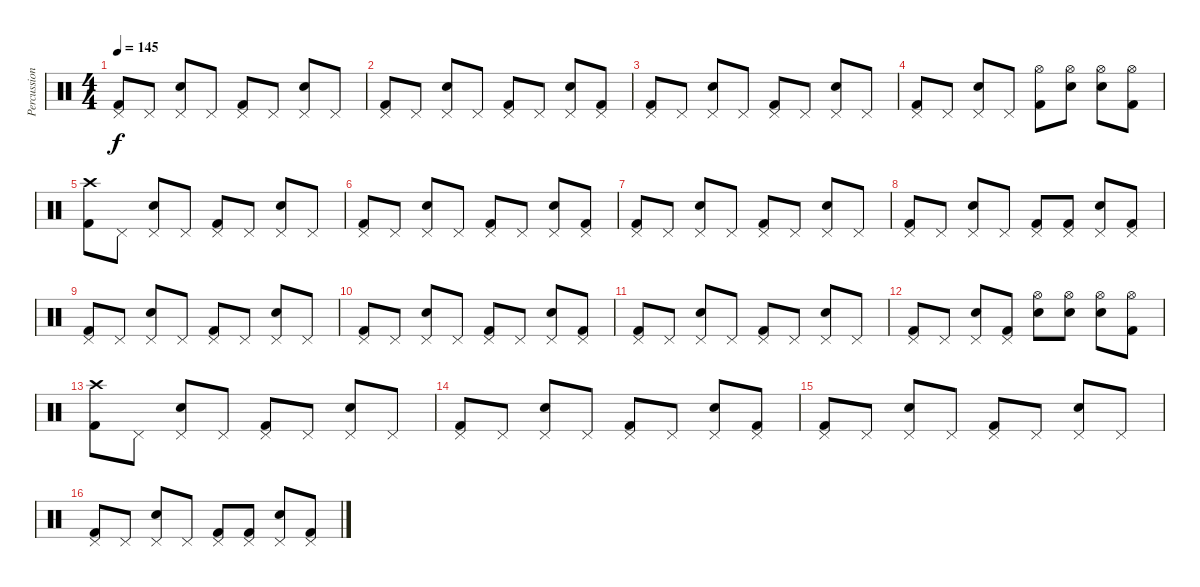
\track ("Percussion" "Percussion") {instrument percussion}
\staff {score}
\articulation defaults
\ts (4 4)
\tempo 145
\clef neutral
\ks c
("Pedal Hi-Hat (hit)" "Kick (hit) 2").8{dy f} "Pedal Hi-Hat (hit)".8 ("Pedal Hi-Hat (hit)" "Electric Snare (hit)").8 "Pedal Hi-Hat (hit)".8 ("Pedal Hi-Hat (hit)" "Kick (hit) 2").8 "Pedal Hi-Hat (hit)".8 ("Pedal Hi-Hat (hit)" "Electric Snare (hit)").8 "Pedal Hi-Hat (hit)".8 |
("Pedal Hi-Hat (hit)" "Kick (hit) 2").8 "Pedal Hi-Hat (hit)".8 ("Pedal Hi-Hat (hit)" "Electric Snare (hit)").8 "Pedal Hi-Hat (hit)".8 ("Pedal Hi-Hat (hit)" "Kick (hit) 2").8 "Pedal Hi-Hat (hit)".8 ("Pedal Hi-Hat (hit)" "Electric Snare (hit)").8 ("Pedal Hi-Hat (hit)" "Kick (hit) 2").8 |
("Pedal Hi-Hat (hit)" "Kick (hit) 2").8 "Pedal Hi-Hat (hit)".8 ("Pedal Hi-Hat (hit)" "Electric Snare (hit)").8 "Pedal Hi-Hat (hit)".8 ("Pedal Hi-Hat (hit)" "Kick (hit) 2").8 "Pedal Hi-Hat (hit)".8 ("Pedal Hi-Hat (hit)" "Electric Snare (hit)").8 "Pedal Hi-Hat (hit)".8 |
("Pedal Hi-Hat (hit)" "Kick (hit) 2").8 "Pedal Hi-Hat (hit)".8 ("Pedal Hi-Hat (hit)" "Electric Snare (hit)").8 "Pedal Hi-Hat (hit)".8 ("Hi-Hat (open)" "Kick (hit) 2").8 ("Hi-Hat (open)" "Electric Snare (hit)").8 ("Hi-Hat (open)" "Electric Snare (hit)").8 ("Hi-Hat (open)" "Kick (hit) 2").8 |
("Crash high (hit)" "Kick (hit) 2").8 "Pedal Hi-Hat (hit)".8 ("Pedal Hi-Hat (hit)" "Electric Snare (hit)").8 "Pedal Hi-Hat (hit)".8 ("Pedal Hi-Hat (hit)" "Kick (hit) 2").8 "Pedal Hi-Hat (hit)".8 ("Pedal Hi-Hat (hit)" "Electric Snare (hit)").8 "Pedal Hi-Hat (hit)".8 |
("Pedal Hi-Hat (hit)" "Kick (hit) 2").8 "Pedal Hi-Hat (hit)".8 ("Pedal Hi-Hat (hit)" "Electric Snare (hit)").8 "Pedal Hi-Hat (hit)".8 ("Pedal Hi-Hat (hit)" "Kick (hit) 2").8 "Pedal Hi-Hat (hit)".8 ("Pedal Hi-Hat (hit)" "Electric Snare (hit)").8 ("Pedal Hi-Hat (hit)" "Kick (hit) 2").8 |
("Pedal Hi-Hat (hit)" "Kick (hit) 2").8 "Pedal Hi-Hat (hit)".8 ("Pedal Hi-Hat (hit)" "Electric Snare (hit)").8 "Pedal Hi-Hat (hit)".8 ("Pedal Hi-Hat (hit)" "Kick (hit) 2").8 "Pedal Hi-Hat (hit)".8 ("Pedal Hi-Hat (hit)" "Electric Snare (hit)").8 "Pedal Hi-Hat (hit)".8 |
("Pedal Hi-Hat (hit)" "Kick (hit) 2").8 "Pedal Hi-Hat (hit)".8 ("Pedal Hi-Hat (hit)" "Electric Snare (hit)").8 "Pedal Hi-Hat (hit)".8 ("Pedal Hi-Hat (hit)" "Kick (hit) 2").8 ("Pedal Hi-Hat (hit)" "Kick (hit) 2").8 ("Pedal Hi-Hat (hit)" "Electric Snare (hit)").8 ("Pedal Hi-Hat (hit)" "Kick (hit) 2").8 |
("Pedal Hi-Hat (hit)" "Kick (hit) 2").8 "Pedal Hi-Hat (hit)".8 ("Pedal Hi-Hat (hit)" "Electric Snare (hit)").8 "Pedal Hi-Hat (hit)".8 ("Pedal Hi-Hat (hit)" "Kick (hit) 2").8 "Pedal Hi-Hat (hit)".8 ("Pedal Hi-Hat (hit)" "Electric Snare (hit)").8 "Pedal Hi-Hat (hit)".8 |
("Pedal Hi-Hat (hit)" "Kick (hit) 2").8 "Pedal Hi-Hat (hit)".8 ("Pedal Hi-Hat (hit)" "Electric Snare (hit)").8 "Pedal Hi-Hat (hit)".8 ("Pedal Hi-Hat (hit)" "Kick (hit) 2").8 "Pedal Hi-Hat (hit)".8 ("Pedal Hi-Hat (hit)" "Electric Snare (hit)").8 ("Pedal Hi-Hat (hit)" "Kick (hit) 2").8 |
("Pedal Hi-Hat (hit)" "Kick (hit) 2").8 "Pedal Hi-Hat (hit)".8 ("Pedal Hi-Hat (hit)" "Electric Snare (hit)").8 "Pedal Hi-Hat (hit)".8 ("Pedal Hi-Hat (hit)" "Kick (hit) 2").8 "Pedal Hi-Hat (hit)".8 ("Pedal Hi-Hat (hit)" "Electric Snare (hit)").8 "Pedal Hi-Hat (hit)".8 |
("Pedal Hi-Hat (hit)" "Kick (hit) 2").8 "Pedal Hi-Hat (hit)".8 ("Pedal Hi-Hat (hit)" "Electric Snare (hit)").8 ("Pedal Hi-Hat (hit)" "Kick (hit) 2").8 ("Hi-Hat (open)" "Electric Snare (hit)").8 ("Hi-Hat (open)" "Electric Snare (hit)").8 ("Hi-Hat (open)" "Electric Snare (hit)").8 ("Hi-Hat (open)" "Kick (hit) 2").8 |
("Crash high (hit)" "Kick (hit) 2").8 "Pedal Hi-Hat (hit)".8 ("Pedal Hi-Hat (hit)" "Electric Snare (hit)").8 "Pedal Hi-Hat (hit)".8 ("Pedal Hi-Hat (hit)" "Kick (hit) 2").8 "Pedal Hi-Hat (hit)".8 ("Pedal Hi-Hat (hit)" "Electric Snare (hit)").8 "Pedal Hi-Hat (hit)".8 |
("Pedal Hi-Hat (hit)" "Kick (hit) 2").8 "Pedal Hi-Hat (hit)".8 ("Pedal Hi-Hat (hit)" "Electric Snare (hit)").8 "Pedal Hi-Hat (hit)".8 ("Pedal Hi-Hat (hit)" "Kick (hit) 2").8 "Pedal Hi-Hat (hit)".8 ("Pedal Hi-Hat (hit)" "Electric Snare (hit)").8 ("Pedal Hi-Hat (hit)" "Kick (hit) 2").8 |
("Pedal Hi-Hat (hit)" "Kick (hit) 2").8 "Pedal Hi-Hat (hit)".8 ("Pedal Hi-Hat (hit)" "Electric Snare (hit)").8 "Pedal Hi-Hat (hit)".8 ("Pedal Hi-Hat (hit)" "Kick (hit) 2").8 "Pedal Hi-Hat (hit)".8 ("Pedal Hi-Hat (hit)" "Electric Snare (hit)").8 "Pedal Hi-Hat (hit)".8 |
("Pedal Hi-Hat (hit)" "Kick (hit) 2").8 "Pedal Hi-Hat (hit)".8 ("Pedal Hi-Hat (hit)" "Electric Snare (hit)").8 "Pedal Hi-Hat (hit)".8 ("Pedal Hi-Hat (hit)" "Kick (hit) 2").8 ("Pedal Hi-Hat (hit)" "Kick (hit) 2").8 ("Pedal Hi-Hat (hit)" "Electric Snare (hit)").8 ("Pedal Hi-Hat (hit)" "Kick (hit) 2").8
